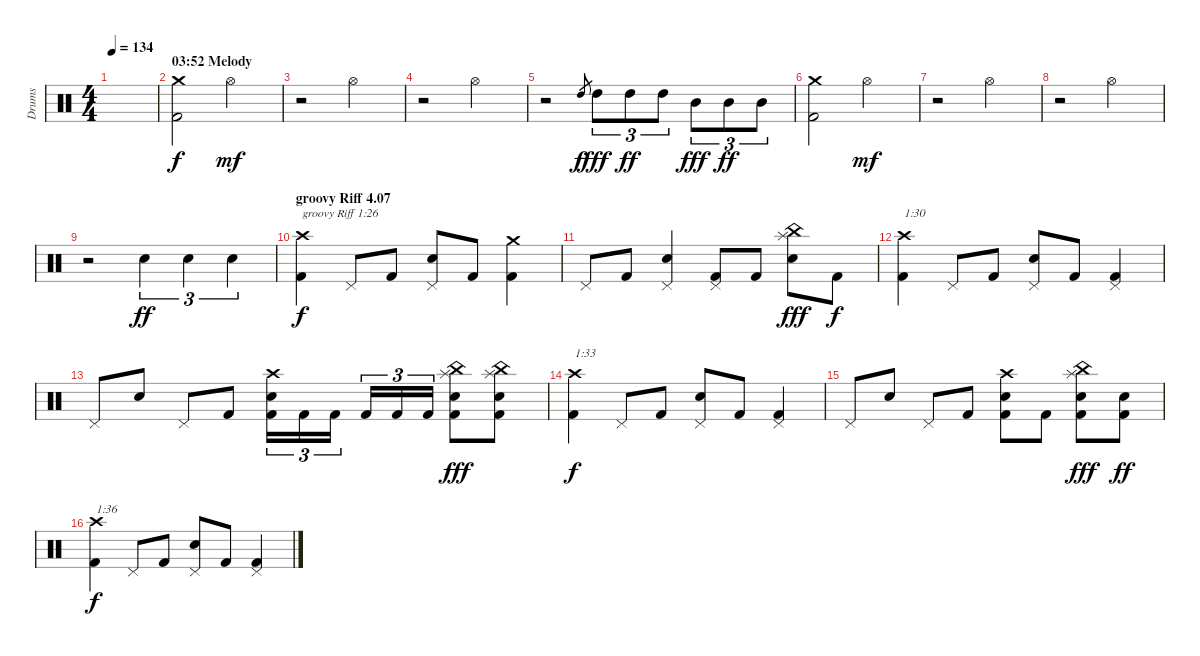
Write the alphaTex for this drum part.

\track ("Drums" "Drums") {instrument percussion}
\staff {score}
\articulation defaults
\ts (4 4)
\tempo 134
\clef neutral
\ks c
|
\section ("" "03:52 Melody")
("Kick (hit) 2" "Crash medium (hit)").2 "Hi-Hat (open)".2{dy mf} |
r.2 "Hi-Hat (open)".2 |
r.2 "Hi-Hat (open)".2 |
r.2 "High Tom (hit)".8{gr dy f} "High Tom (hit)".8{tu (3 2) dy fff} "High Tom (hit)".8{tu (3 2) dy ff} "High Tom (hit)".8{tu (3 2)} "Mid Tom (hit)".8{tu (3 2) dy fff} "Mid Tom (hit)".8{tu (3 2) dy ff} "Mid Tom (hit)".8{tu (3 2)} |
("Kick (hit) 2" "Crash medium (hit)").2 "Hi-Hat (open)".2{dy mf} |
r.2 "Hi-Hat (open)".2 |
r.2 "Hi-Hat (open)".2 |
r.2 "Electric Snare (hit)".4{tu (3 2) dy ff} "Electric Snare (hit)".4{tu (3 2)} "Electric Snare (hit)".4{tu (3 2)} |
\section ("" "groovy Riff 4.07")
("Kick (hit) 2" "Crash high (hit)").4{txt "groovy Riff 1:26" dy f} "Pedal Hi-Hat (hit)".8 "Kick (hit) 2".8 ("Electric Snare (hit)" "Pedal Hi-Hat (hit)").8 "Kick (hit) 2".8 ("Kick (hit) 2" "Crash medium (hit)").4 |
"Pedal Hi-Hat (hit)".8 "Kick (hit) 2".8 ("Electric Snare (hit)" "Pedal Hi-Hat (hit)").4 ("Kick (hit) 2" "Pedal Hi-Hat (hit)").8 "Kick (hit) 2".8 ("Electric Snare (hit)" "Splash (hit)" "China (hit)").8{dy fff} "Kick (hit) 2".8{dy f} |
("Kick (hit) 2" "Crash high (hit)").4{txt "1:30"} "Pedal Hi-Hat (hit)".8 "Kick (hit) 2".8 ("Electric Snare (hit)" "Pedal Hi-Hat (hit)").8 "Kick (hit) 2".8 ("Kick (hit) 2" "Pedal Hi-Hat (hit)").4 |
"Pedal Hi-Hat (hit)".8 "Electric Snare (hit)".8 "Pedal Hi-Hat (hit)".8 "Kick (hit) 2".8 ("Kick (hit) 2" "Electric Snare (hit)" "Crash high (hit)").16{tu (3 2)} "Kick (hit) 2".16{tu (3 2)} "Kick (hit) 2".16{tu (3 2)} "Kick (hit) 2".16{tu (3 2)} "Kick (hit) 2".16{tu (3 2)} "Kick (hit) 2".16{tu (3 2)} ("Kick (hit) 2" "Electric Snare (hit)" "Splash (hit)" "China (hit)").8{dy fff} ("Kick (hit) 2" "Electric Snare (hit)" "Splash (hit)" "China (hit)").8 |
("Kick (hit) 2" "Crash high (hit)").4{txt "1:33" dy f} "Pedal Hi-Hat (hit)".8 "Kick (hit) 2".8 ("Electric Snare (hit)" "Pedal Hi-Hat (hit)").8 "Kick (hit) 2".8 ("Kick (hit) 2" "Pedal Hi-Hat (hit)").4 |
"Pedal Hi-Hat (hit)".8 "Electric Snare (hit)".8 "Pedal Hi-Hat (hit)".8 "Kick (hit) 2".8 ("Kick (hit) 2" "Electric Snare (hit)" "Crash high (hit)").8 "Kick (hit) 2".8 ("Kick (hit) 2" "Electric Snare (hit)" "Splash (hit)" "China (hit)").8{dy fff} ("Kick (hit) 2" "Electric Snare (hit)").8{dy ff} |
("Kick (hit) 2" "Crash high (hit)").4{txt "1:36" dy f} "Pedal Hi-Hat (hit)".8 "Kick (hit) 2".8 ("Electric Snare (hit)" "Pedal Hi-Hat (hit)").8 "Kick (hit) 2".8 ("Kick (hit) 2" "Pedal Hi-Hat (hit)").4
